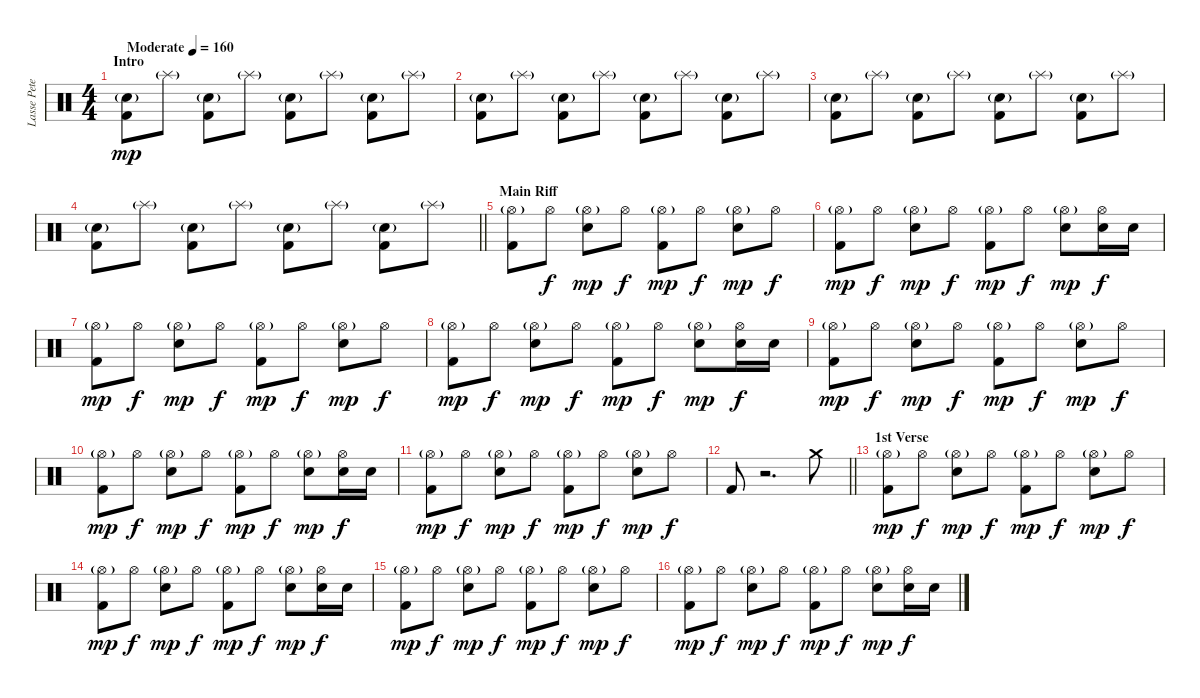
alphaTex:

\track ("Lasse Petersen - Drums" "Lasse Pete") {instrument percussion}
\staff {score}
\articulation defaults
\ts (4 4)
\section ("" "Intro")
\tempo (160 "Moderate")
\clef neutral
\ks c
("Kick (hit) 2" "Electric Snare (hit)"{g}).8{dy mp} "Splash (hit)"{g}.8 ("Kick (hit) 2" "Electric Snare (hit)"{g}).8 "Splash (hit)"{g}.8 ("Kick (hit) 2" "Electric Snare (hit)"{g}).8 "Splash (hit)"{g}.8 ("Kick (hit) 2" "Electric Snare (hit)"{g}).8 "Splash (hit)"{g}.8 |
("Kick (hit) 2" "Electric Snare (hit)"{g}).8 "Splash (hit)"{g}.8 ("Kick (hit) 2" "Electric Snare (hit)"{g}).8 "Splash (hit)"{g}.8 ("Kick (hit) 2" "Electric Snare (hit)"{g}).8 "Splash (hit)"{g}.8 ("Kick (hit) 2" "Electric Snare (hit)"{g}).8 "Splash (hit)"{g}.8 |
("Kick (hit) 2" "Electric Snare (hit)"{g}).8 "Splash (hit)"{g}.8 ("Kick (hit) 2" "Electric Snare (hit)"{g}).8 "Splash (hit)"{g}.8 ("Kick (hit) 2" "Electric Snare (hit)"{g}).8 "Splash (hit)"{g}.8 ("Kick (hit) 2" "Electric Snare (hit)"{g}).8 "Splash (hit)"{g}.8 |
\barLineRight lightlight
("Kick (hit) 2" "Electric Snare (hit)"{g}).8 "Splash (hit)"{g}.8 ("Kick (hit) 2" "Electric Snare (hit)"{g}).8 "Splash (hit)"{g}.8 ("Kick (hit) 2" "Electric Snare (hit)"{g}).8 "Splash (hit)"{g}.8 ("Kick (hit) 2" "Electric Snare (hit)"{g}).8 "Splash (hit)"{g}.8 |
\section ("" "Main Riff")
("Kick (hit) 2" "Hi-Hat (open)"{g}).8 "Hi-Hat (open)".8{dy f} ("Electric Snare (hit)" "Hi-Hat (open)"{g}).8{dy mp} "Hi-Hat (open)".8{dy f} ("Kick (hit) 2" "Hi-Hat (open)"{g}).8{dy mp} "Hi-Hat (open)".8{dy f} ("Electric Snare (hit)" "Hi-Hat (open)"{g}).8{dy mp} "Hi-Hat (open)".8{dy f} |
("Kick (hit) 2" "Hi-Hat (open)"{g}).8{dy mp} "Hi-Hat (open)".8{dy f} ("Electric Snare (hit)" "Hi-Hat (open)"{g}).8{dy mp} "Hi-Hat (open)".8{dy f} ("Kick (hit) 2" "Hi-Hat (open)"{g}).8{dy mp} "Hi-Hat (open)".8{dy f} ("Electric Snare (hit)" "Hi-Hat (open)"{g}).8{dy mp} ("Electric Snare (hit)" "Hi-Hat (open)").16{dy f} "Electric Snare (hit)".16 |
("Kick (hit) 2" "Hi-Hat (open)"{g}).8{dy mp} "Hi-Hat (open)".8{dy f} ("Electric Snare (hit)" "Hi-Hat (open)"{g}).8{dy mp} "Hi-Hat (open)".8{dy f} ("Kick (hit) 2" "Hi-Hat (open)"{g}).8{dy mp} "Hi-Hat (open)".8{dy f} ("Electric Snare (hit)" "Hi-Hat (open)"{g}).8{dy mp} "Hi-Hat (open)".8{dy f} |
("Kick (hit) 2" "Hi-Hat (open)"{g}).8{dy mp} "Hi-Hat (open)".8{dy f} ("Electric Snare (hit)" "Hi-Hat (open)"{g}).8{dy mp} "Hi-Hat (open)".8{dy f} ("Kick (hit) 2" "Hi-Hat (open)"{g}).8{dy mp} "Hi-Hat (open)".8{dy f} ("Electric Snare (hit)" "Hi-Hat (open)"{g}).8{dy mp} ("Electric Snare (hit)" "Hi-Hat (open)").16{dy f} "Electric Snare (hit)".16 |
("Kick (hit) 2" "Hi-Hat (open)"{g}).8{dy mp} "Hi-Hat (open)".8{dy f} ("Electric Snare (hit)" "Hi-Hat (open)"{g}).8{dy mp} "Hi-Hat (open)".8{dy f} ("Kick (hit) 2" "Hi-Hat (open)"{g}).8{dy mp} "Hi-Hat (open)".8{dy f} ("Electric Snare (hit)" "Hi-Hat (open)"{g}).8{dy mp} "Hi-Hat (open)".8{dy f} |
("Kick (hit) 2" "Hi-Hat (open)"{g}).8{dy mp} "Hi-Hat (open)".8{dy f} ("Electric Snare (hit)" "Hi-Hat (open)"{g}).8{dy mp} "Hi-Hat (open)".8{dy f} ("Kick (hit) 2" "Hi-Hat (open)"{g}).8{dy mp} "Hi-Hat (open)".8{dy f} ("Electric Snare (hit)" "Hi-Hat (open)"{g}).8{dy mp} ("Electric Snare (hit)" "Hi-Hat (open)").16{dy f} "Electric Snare (hit)".16 |
("Kick (hit) 2" "Hi-Hat (open)"{g}).8{dy mp} "Hi-Hat (open)".8{dy f} ("Electric Snare (hit)" "Hi-Hat (open)"{g}).8{dy mp} "Hi-Hat (open)".8{dy f} ("Kick (hit) 2" "Hi-Hat (open)"{g}).8{dy mp} "Hi-Hat (open)".8{dy f} ("Electric Snare (hit)" "Hi-Hat (open)"{g}).8{dy mp} "Hi-Hat (open)".8{dy f} |
\barLineRight lightlight "Kick (hit) 2".8
r.2{d} "Crash medium (hit)".8 |
\section ("" "1st Verse")
("Kick (hit) 2" "Hi-Hat (open)"{g}).8{dy mp} "Hi-Hat (open)".8{dy f} ("Electric Snare (hit)" "Hi-Hat (open)"{g}).8{dy mp} "Hi-Hat (open)".8{dy f} ("Kick (hit) 2" "Hi-Hat (open)"{g}).8{dy mp} "Hi-Hat (open)".8{dy f} ("Electric Snare (hit)" "Hi-Hat (open)"{g}).8{dy mp} "Hi-Hat (open)".8{dy f} |
("Kick (hit) 2" "Hi-Hat (open)"{g}).8{dy mp} "Hi-Hat (open)".8{dy f} ("Electric Snare (hit)" "Hi-Hat (open)"{g}).8{dy mp} "Hi-Hat (open)".8{dy f} ("Kick (hit) 2" "Hi-Hat (open)"{g}).8{dy mp} "Hi-Hat (open)".8{dy f} ("Electric Snare (hit)" "Hi-Hat (open)"{g}).8{dy mp} ("Electric Snare (hit)" "Hi-Hat (open)").16{dy f} "Electric Snare (hit)".16 |
("Kick (hit) 2" "Hi-Hat (open)"{g}).8{dy mp} "Hi-Hat (open)".8{dy f} ("Electric Snare (hit)" "Hi-Hat (open)"{g}).8{dy mp} "Hi-Hat (open)".8{dy f} ("Kick (hit) 2" "Hi-Hat (open)"{g}).8{dy mp} "Hi-Hat (open)".8{dy f} ("Electric Snare (hit)" "Hi-Hat (open)"{g}).8{dy mp} "Hi-Hat (open)".8{dy f} |
("Kick (hit) 2" "Hi-Hat (open)"{g}).8{dy mp} "Hi-Hat (open)".8{dy f} ("Electric Snare (hit)" "Hi-Hat (open)"{g}).8{dy mp} "Hi-Hat (open)".8{dy f} ("Kick (hit) 2" "Hi-Hat (open)"{g}).8{dy mp} "Hi-Hat (open)".8{dy f} ("Electric Snare (hit)" "Hi-Hat (open)"{g}).8{dy mp} ("Electric Snare (hit)" "Hi-Hat (open)").16{dy f} "Electric Snare (hit)".16
